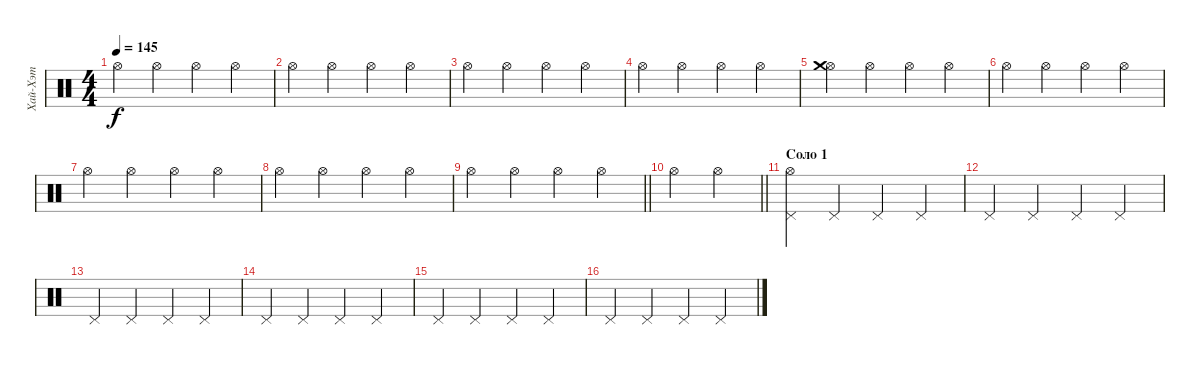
\track ("Хай-Хэт" "Хай-Хэт") {instrument percussion}
\staff {score}
\articulation defaults
\ts (4 4)
\tempo 145
\clef neutral
\ks c "Hi-Hat (open)".4{dy f} "Hi-Hat (open)".4 "Hi-Hat (open)".4 "Hi-Hat (open)".4
|
"Hi-Hat (open)".4 "Hi-Hat (open)".4 "Hi-Hat (open)".4 "Hi-Hat (open)".4 |
"Hi-Hat (open)".4 "Hi-Hat (open)".4 "Hi-Hat (open)".4 "Hi-Hat (open)".4 |
"Hi-Hat (open)".4 "Hi-Hat (open)".4 "Hi-Hat (open)".4 "Hi-Hat (open)".4 |
("Hi-Hat (open)" "Crash medium (hit)").4 "Hi-Hat (open)".4 "Hi-Hat (open)".4 "Hi-Hat (open)".4 |
"Hi-Hat (open)".4 "Hi-Hat (open)".4 "Hi-Hat (open)".4 "Hi-Hat (open)".4 |
"Hi-Hat (open)".4 "Hi-Hat (open)".4 "Hi-Hat (open)".4 "Hi-Hat (open)".4 |
"Hi-Hat (open)".4 "Hi-Hat (open)".4 "Hi-Hat (open)".4 "Hi-Hat (open)".4 |
\barLineRight lightlight "Hi-Hat (open)".4 "Hi-Hat (open)".4 "Hi-Hat (open)".4 "Hi-Hat (open)".4
|
\barLineRight lightlight "Hi-Hat (open)".4 "Hi-Hat (open)".4
|
\section ("" "Соло 1")
("Pedal Hi-Hat (hit)" "Hi-Hat (open)").4 "Pedal Hi-Hat (hit)".4 "Pedal Hi-Hat (hit)".4 "Pedal Hi-Hat (hit)".4 |
"Pedal Hi-Hat (hit)".4 "Pedal Hi-Hat (hit)".4 "Pedal Hi-Hat (hit)".4 "Pedal Hi-Hat (hit)".4 |
"Pedal Hi-Hat (hit)".4 "Pedal Hi-Hat (hit)".4 "Pedal Hi-Hat (hit)".4 "Pedal Hi-Hat (hit)".4 |
"Pedal Hi-Hat (hit)".4 "Pedal Hi-Hat (hit)".4 "Pedal Hi-Hat (hit)".4 "Pedal Hi-Hat (hit)".4 |
"Pedal Hi-Hat (hit)".4 "Pedal Hi-Hat (hit)".4 "Pedal Hi-Hat (hit)".4 "Pedal Hi-Hat (hit)".4 |
"Pedal Hi-Hat (hit)".4 "Pedal Hi-Hat (hit)".4 "Pedal Hi-Hat (hit)".4 "Pedal Hi-Hat (hit)".4
